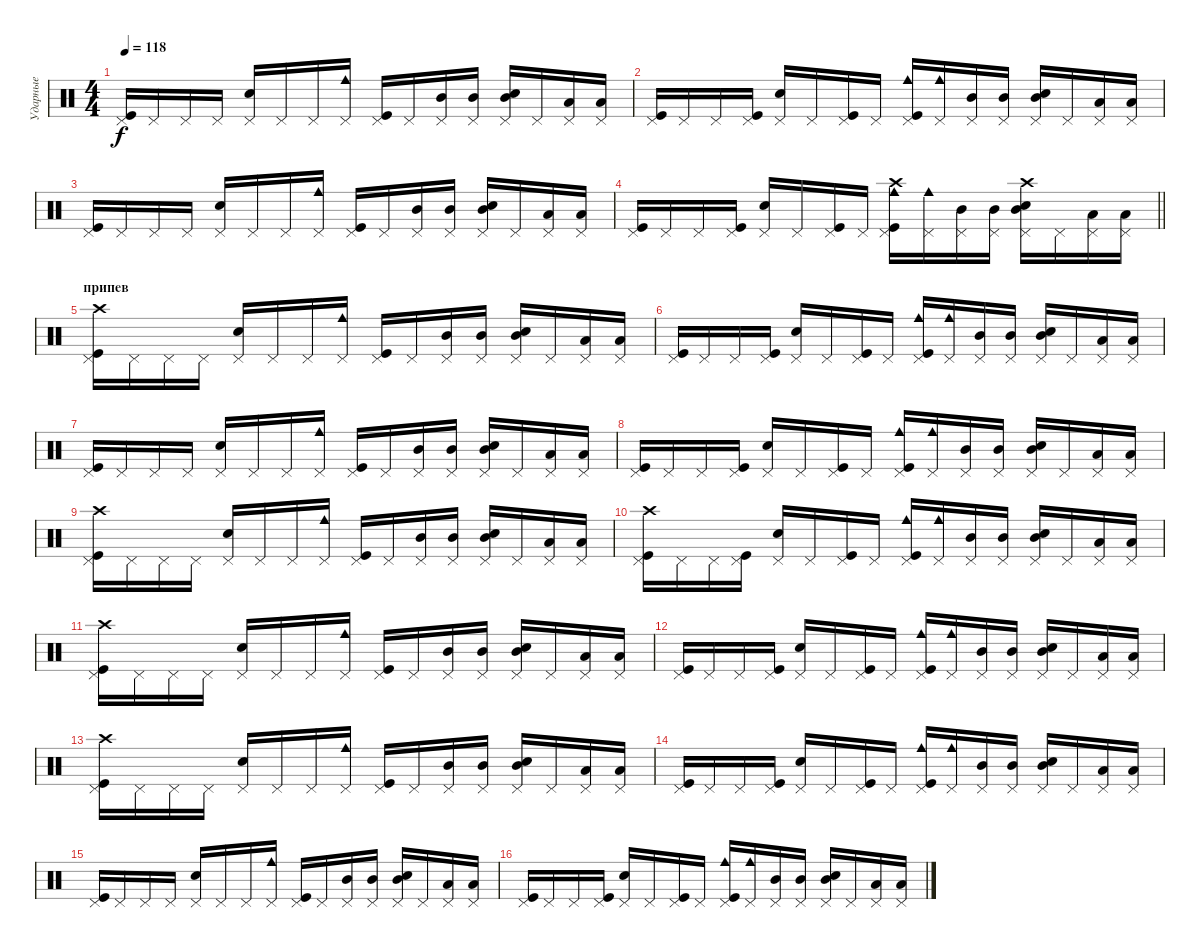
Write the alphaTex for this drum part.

\track ("Ударные" "Ударные") {instrument percussion}
\staff {score}
\articulation defaults
\ts (4 4)
\tempo 118
\clef neutral
\ks c
("Pedal Hi-Hat (hit)" "Kick (hit)").16{dy f} "Pedal Hi-Hat (hit)".16 "Pedal Hi-Hat (hit)".16 "Pedal Hi-Hat (hit)".16 ("Pedal Hi-Hat (hit)" "Snare (hit) 2").16 "Pedal Hi-Hat (hit)".16 "Pedal Hi-Hat (hit)".16 ("Pedal Hi-Hat (hit)" "Cowbell medium (hit)").16 ("Pedal Hi-Hat (hit)" "Kick (hit)").16 "Pedal Hi-Hat (hit)".16 ("Pedal Hi-Hat (hit)" "Mid Tom (hit)").16 ("Pedal Hi-Hat (hit)" "Mid Tom (hit)").16 ("Pedal Hi-Hat (hit)" "Mid Tom (hit)" "Snare (hit) 2").16 "Pedal Hi-Hat (hit)".16 ("Pedal Hi-Hat (hit)" "Low Tom (hit)").16 ("Pedal Hi-Hat (hit)" "Low Tom (hit)").16 |
("Pedal Hi-Hat (hit)" "Kick (hit)").16 "Pedal Hi-Hat (hit)".16 "Pedal Hi-Hat (hit)".16 ("Pedal Hi-Hat (hit)" "Kick (hit)").16 ("Pedal Hi-Hat (hit)" "Snare (hit) 2").16 "Pedal Hi-Hat (hit)".16 ("Pedal Hi-Hat (hit)" "Kick (hit)").16 "Pedal Hi-Hat (hit)".16 ("Pedal Hi-Hat (hit)" "Kick (hit)" "Cowbell medium (hit)").16 ("Pedal Hi-Hat (hit)" "Cowbell medium (hit)").16 ("Pedal Hi-Hat (hit)" "Mid Tom (hit)").16 ("Pedal Hi-Hat (hit)" "Mid Tom (hit)").16 ("Pedal Hi-Hat (hit)" "Mid Tom (hit)" "Snare (hit) 2").16 "Pedal Hi-Hat (hit)".16 ("Pedal Hi-Hat (hit)" "Low Tom (hit)").16 ("Pedal Hi-Hat (hit)" "Low Tom (hit)").16 |
("Pedal Hi-Hat (hit)" "Kick (hit)").16 "Pedal Hi-Hat (hit)".16 "Pedal Hi-Hat (hit)".16 "Pedal Hi-Hat (hit)".16 ("Pedal Hi-Hat (hit)" "Snare (hit) 2").16 "Pedal Hi-Hat (hit)".16 "Pedal Hi-Hat (hit)".16 ("Pedal Hi-Hat (hit)" "Cowbell medium (hit)").16 ("Pedal Hi-Hat (hit)" "Kick (hit)").16 "Pedal Hi-Hat (hit)".16 ("Pedal Hi-Hat (hit)" "Mid Tom (hit)").16 ("Pedal Hi-Hat (hit)" "Mid Tom (hit)").16 ("Pedal Hi-Hat (hit)" "Mid Tom (hit)" "Snare (hit) 2").16 "Pedal Hi-Hat (hit)".16 ("Pedal Hi-Hat (hit)" "Low Tom (hit)").16 ("Pedal Hi-Hat (hit)" "Low Tom (hit)").16 |
\barLineRight lightlight
("Pedal Hi-Hat (hit)" "Kick (hit)").16 "Pedal Hi-Hat (hit)".16 "Pedal Hi-Hat (hit)".16 ("Pedal Hi-Hat (hit)" "Kick (hit)").16 ("Pedal Hi-Hat (hit)" "Snare (hit) 2").16 "Pedal Hi-Hat (hit)".16 ("Pedal Hi-Hat (hit)" "Kick (hit)").16 "Pedal Hi-Hat (hit)".16 ("Pedal Hi-Hat (hit)" "Kick (hit)" "Cowbell medium (hit)" "Crash high (hit)").16 ("Pedal Hi-Hat (hit)" "Cowbell medium (hit)").16 ("Pedal Hi-Hat (hit)" "Mid Tom (hit)").16 ("Pedal Hi-Hat (hit)" "Mid Tom (hit)").16 ("Pedal Hi-Hat (hit)" "Mid Tom (hit)" "Snare (hit) 2" "Crash high (hit)").16 "Pedal Hi-Hat (hit)".16 ("Pedal Hi-Hat (hit)" "Low Tom (hit)").16 ("Pedal Hi-Hat (hit)" "Low Tom (hit)").16 |
\section ("" "припев")
("Pedal Hi-Hat (hit)" "Kick (hit)" "Crash high (hit)").16 "Pedal Hi-Hat (hit)".16 "Pedal Hi-Hat (hit)".16 "Pedal Hi-Hat (hit)".16 ("Pedal Hi-Hat (hit)" "Snare (hit) 2").16 "Pedal Hi-Hat (hit)".16 "Pedal Hi-Hat (hit)".16 ("Pedal Hi-Hat (hit)" "Cowbell medium (hit)").16 ("Pedal Hi-Hat (hit)" "Kick (hit)").16 "Pedal Hi-Hat (hit)".16 ("Pedal Hi-Hat (hit)" "Mid Tom (hit)").16 ("Pedal Hi-Hat (hit)" "Mid Tom (hit)").16 ("Pedal Hi-Hat (hit)" "Mid Tom (hit)" "Snare (hit) 2").16 "Pedal Hi-Hat (hit)".16 ("Pedal Hi-Hat (hit)" "Low Tom (hit)").16 ("Pedal Hi-Hat (hit)" "Low Tom (hit)").16 |
("Pedal Hi-Hat (hit)" "Kick (hit)").16 "Pedal Hi-Hat (hit)".16 "Pedal Hi-Hat (hit)".16 ("Pedal Hi-Hat (hit)" "Kick (hit)").16 ("Pedal Hi-Hat (hit)" "Snare (hit) 2").16 "Pedal Hi-Hat (hit)".16 ("Pedal Hi-Hat (hit)" "Kick (hit)").16 "Pedal Hi-Hat (hit)".16 ("Pedal Hi-Hat (hit)" "Kick (hit)" "Cowbell medium (hit)").16 ("Pedal Hi-Hat (hit)" "Cowbell medium (hit)").16 ("Pedal Hi-Hat (hit)" "Mid Tom (hit)").16 ("Pedal Hi-Hat (hit)" "Mid Tom (hit)").16 ("Pedal Hi-Hat (hit)" "Mid Tom (hit)" "Snare (hit) 2").16 "Pedal Hi-Hat (hit)".16 ("Pedal Hi-Hat (hit)" "Low Tom (hit)").16 ("Pedal Hi-Hat (hit)" "Low Tom (hit)").16 |
("Pedal Hi-Hat (hit)" "Kick (hit)").16 "Pedal Hi-Hat (hit)".16 "Pedal Hi-Hat (hit)".16 "Pedal Hi-Hat (hit)".16 ("Pedal Hi-Hat (hit)" "Snare (hit) 2").16 "Pedal Hi-Hat (hit)".16 "Pedal Hi-Hat (hit)".16 ("Pedal Hi-Hat (hit)" "Cowbell medium (hit)").16 ("Pedal Hi-Hat (hit)" "Kick (hit)").16 "Pedal Hi-Hat (hit)".16 ("Pedal Hi-Hat (hit)" "Mid Tom (hit)").16 ("Pedal Hi-Hat (hit)" "Mid Tom (hit)").16 ("Pedal Hi-Hat (hit)" "Mid Tom (hit)" "Snare (hit) 2").16 "Pedal Hi-Hat (hit)".16 ("Pedal Hi-Hat (hit)" "Low Tom (hit)").16 ("Pedal Hi-Hat (hit)" "Low Tom (hit)").16 |
("Pedal Hi-Hat (hit)" "Kick (hit)").16 "Pedal Hi-Hat (hit)".16 "Pedal Hi-Hat (hit)".16 ("Pedal Hi-Hat (hit)" "Kick (hit)").16 ("Pedal Hi-Hat (hit)" "Snare (hit) 2").16 "Pedal Hi-Hat (hit)".16 ("Pedal Hi-Hat (hit)" "Kick (hit)").16 "Pedal Hi-Hat (hit)".16 ("Pedal Hi-Hat (hit)" "Kick (hit)" "Cowbell medium (hit)").16 ("Pedal Hi-Hat (hit)" "Cowbell medium (hit)").16 ("Pedal Hi-Hat (hit)" "Mid Tom (hit)").16 ("Pedal Hi-Hat (hit)" "Mid Tom (hit)").16 ("Pedal Hi-Hat (hit)" "Mid Tom (hit)" "Snare (hit) 2").16 "Pedal Hi-Hat (hit)".16 ("Pedal Hi-Hat (hit)" "Low Tom (hit)").16 ("Pedal Hi-Hat (hit)" "Low Tom (hit)").16 |
("Pedal Hi-Hat (hit)" "Kick (hit)" "Crash high (hit)").16 "Pedal Hi-Hat (hit)".16 "Pedal Hi-Hat (hit)".16 "Pedal Hi-Hat (hit)".16 ("Pedal Hi-Hat (hit)" "Snare (hit) 2").16 "Pedal Hi-Hat (hit)".16 "Pedal Hi-Hat (hit)".16 ("Pedal Hi-Hat (hit)" "Cowbell medium (hit)").16 ("Pedal Hi-Hat (hit)" "Kick (hit)").16 "Pedal Hi-Hat (hit)".16 ("Pedal Hi-Hat (hit)" "Mid Tom (hit)").16 ("Pedal Hi-Hat (hit)" "Mid Tom (hit)").16 ("Pedal Hi-Hat (hit)" "Mid Tom (hit)" "Snare (hit) 2").16 "Pedal Hi-Hat (hit)".16 ("Pedal Hi-Hat (hit)" "Low Tom (hit)").16 ("Pedal Hi-Hat (hit)" "Low Tom (hit)").16 |
("Pedal Hi-Hat (hit)" "Kick (hit)" "Crash high (hit)").16 "Pedal Hi-Hat (hit)".16 "Pedal Hi-Hat (hit)".16 ("Pedal Hi-Hat (hit)" "Kick (hit)").16 ("Pedal Hi-Hat (hit)" "Snare (hit) 2").16 "Pedal Hi-Hat (hit)".16 ("Pedal Hi-Hat (hit)" "Kick (hit)").16 "Pedal Hi-Hat (hit)".16 ("Pedal Hi-Hat (hit)" "Kick (hit)" "Cowbell medium (hit)").16 ("Pedal Hi-Hat (hit)" "Cowbell medium (hit)").16 ("Pedal Hi-Hat (hit)" "Mid Tom (hit)").16 ("Pedal Hi-Hat (hit)" "Mid Tom (hit)").16 ("Pedal Hi-Hat (hit)" "Mid Tom (hit)" "Snare (hit) 2").16 "Pedal Hi-Hat (hit)".16 ("Pedal Hi-Hat (hit)" "Low Tom (hit)").16 ("Pedal Hi-Hat (hit)" "Low Tom (hit)").16 |
("Pedal Hi-Hat (hit)" "Kick (hit)" "Crash high (hit)").16 "Pedal Hi-Hat (hit)".16 "Pedal Hi-Hat (hit)".16 "Pedal Hi-Hat (hit)".16 ("Pedal Hi-Hat (hit)" "Snare (hit) 2").16 "Pedal Hi-Hat (hit)".16 "Pedal Hi-Hat (hit)".16 ("Pedal Hi-Hat (hit)" "Cowbell medium (hit)").16 ("Pedal Hi-Hat (hit)" "Kick (hit)").16 "Pedal Hi-Hat (hit)".16 ("Pedal Hi-Hat (hit)" "Mid Tom (hit)").16 ("Pedal Hi-Hat (hit)" "Mid Tom (hit)").16 ("Pedal Hi-Hat (hit)" "Mid Tom (hit)" "Snare (hit) 2").16 "Pedal Hi-Hat (hit)".16 ("Pedal Hi-Hat (hit)" "Low Tom (hit)").16 ("Pedal Hi-Hat (hit)" "Low Tom (hit)").16 |
("Pedal Hi-Hat (hit)" "Kick (hit)").16 "Pedal Hi-Hat (hit)".16 "Pedal Hi-Hat (hit)".16 ("Pedal Hi-Hat (hit)" "Kick (hit)").16 ("Pedal Hi-Hat (hit)" "Snare (hit) 2").16 "Pedal Hi-Hat (hit)".16 ("Pedal Hi-Hat (hit)" "Kick (hit)").16 "Pedal Hi-Hat (hit)".16 ("Pedal Hi-Hat (hit)" "Kick (hit)" "Cowbell medium (hit)").16 ("Pedal Hi-Hat (hit)" "Cowbell medium (hit)").16 ("Pedal Hi-Hat (hit)" "Mid Tom (hit)").16 ("Pedal Hi-Hat (hit)" "Mid Tom (hit)").16 ("Pedal Hi-Hat (hit)" "Mid Tom (hit)" "Snare (hit) 2").16 "Pedal Hi-Hat (hit)".16 ("Pedal Hi-Hat (hit)" "Low Tom (hit)").16 ("Pedal Hi-Hat (hit)" "Low Tom (hit)").16 |
("Pedal Hi-Hat (hit)" "Kick (hit)" "Crash high (hit)").16 "Pedal Hi-Hat (hit)".16 "Pedal Hi-Hat (hit)".16 "Pedal Hi-Hat (hit)".16 ("Pedal Hi-Hat (hit)" "Snare (hit) 2").16 "Pedal Hi-Hat (hit)".16 "Pedal Hi-Hat (hit)".16 ("Pedal Hi-Hat (hit)" "Cowbell medium (hit)").16 ("Pedal Hi-Hat (hit)" "Kick (hit)").16 "Pedal Hi-Hat (hit)".16 ("Pedal Hi-Hat (hit)" "Mid Tom (hit)").16 ("Pedal Hi-Hat (hit)" "Mid Tom (hit)").16 ("Pedal Hi-Hat (hit)" "Mid Tom (hit)" "Snare (hit) 2").16 "Pedal Hi-Hat (hit)".16 ("Pedal Hi-Hat (hit)" "Low Tom (hit)").16 ("Pedal Hi-Hat (hit)" "Low Tom (hit)").16 |
("Pedal Hi-Hat (hit)" "Kick (hit)").16 "Pedal Hi-Hat (hit)".16 "Pedal Hi-Hat (hit)".16 ("Pedal Hi-Hat (hit)" "Kick (hit)").16 ("Pedal Hi-Hat (hit)" "Snare (hit) 2").16 "Pedal Hi-Hat (hit)".16 ("Pedal Hi-Hat (hit)" "Kick (hit)").16 "Pedal Hi-Hat (hit)".16 ("Pedal Hi-Hat (hit)" "Kick (hit)" "Cowbell medium (hit)").16 ("Pedal Hi-Hat (hit)" "Cowbell medium (hit)").16 ("Pedal Hi-Hat (hit)" "Mid Tom (hit)").16 ("Pedal Hi-Hat (hit)" "Mid Tom (hit)").16 ("Pedal Hi-Hat (hit)" "Mid Tom (hit)" "Snare (hit) 2").16 "Pedal Hi-Hat (hit)".16 ("Pedal Hi-Hat (hit)" "Low Tom (hit)").16 ("Pedal Hi-Hat (hit)" "Low Tom (hit)").16 |
("Pedal Hi-Hat (hit)" "Kick (hit)").16 "Pedal Hi-Hat (hit)".16 "Pedal Hi-Hat (hit)".16 "Pedal Hi-Hat (hit)".16 ("Pedal Hi-Hat (hit)" "Snare (hit) 2").16 "Pedal Hi-Hat (hit)".16 "Pedal Hi-Hat (hit)".16 ("Pedal Hi-Hat (hit)" "Cowbell medium (hit)").16 ("Pedal Hi-Hat (hit)" "Kick (hit)").16 "Pedal Hi-Hat (hit)".16 ("Pedal Hi-Hat (hit)" "Mid Tom (hit)").16 ("Pedal Hi-Hat (hit)" "Mid Tom (hit)").16 ("Pedal Hi-Hat (hit)" "Mid Tom (hit)" "Snare (hit) 2").16 "Pedal Hi-Hat (hit)".16 ("Pedal Hi-Hat (hit)" "Low Tom (hit)").16 ("Pedal Hi-Hat (hit)" "Low Tom (hit)").16 |
("Pedal Hi-Hat (hit)" "Kick (hit)").16 "Pedal Hi-Hat (hit)".16 "Pedal Hi-Hat (hit)".16 ("Pedal Hi-Hat (hit)" "Kick (hit)").16 ("Pedal Hi-Hat (hit)" "Snare (hit) 2").16 "Pedal Hi-Hat (hit)".16 ("Pedal Hi-Hat (hit)" "Kick (hit)").16 "Pedal Hi-Hat (hit)".16 ("Pedal Hi-Hat (hit)" "Kick (hit)" "Cowbell medium (hit)").16 ("Pedal Hi-Hat (hit)" "Cowbell medium (hit)").16 ("Pedal Hi-Hat (hit)" "Mid Tom (hit)").16 ("Pedal Hi-Hat (hit)" "Mid Tom (hit)").16 ("Pedal Hi-Hat (hit)" "Mid Tom (hit)" "Snare (hit) 2").16 "Pedal Hi-Hat (hit)".16 ("Pedal Hi-Hat (hit)" "Low Tom (hit)").16 ("Pedal Hi-Hat (hit)" "Low Tom (hit)").16
